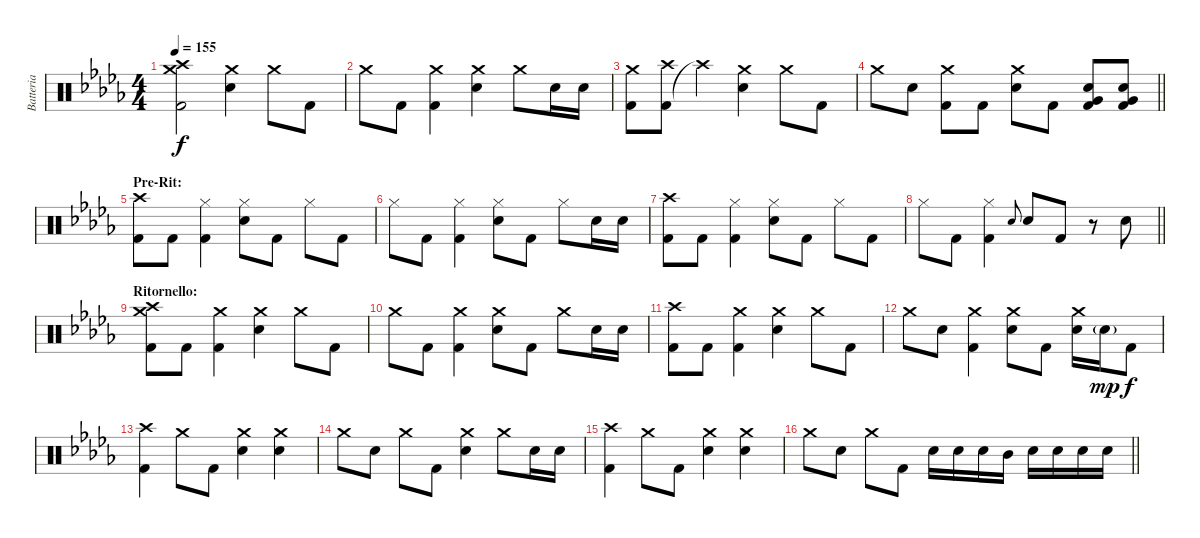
\track ("Batteria" "Batteria") {instrument percussion}
\staff {score}
\articulation defaults
\ts (4 4)
\tempo 155
\clef neutral
\ks bbminor
("Kick (hit) 2" "Crash medium (hit)" "Crash high (hit)").2{dy f} ("Snare (hit) 2" "Crash medium (hit)").4 "Crash medium (hit)".8 "Kick (hit) 2".8 |
"Crash medium (hit)".8 "Kick (hit) 2".8 ("Kick (hit) 2" "Crash medium (hit)").4 ("Snare (hit) 2" "Crash medium (hit)").4 "Crash medium (hit)".8 "Snare (hit) 2".16 "Snare (hit) 2".16 |
("Kick (hit) 2" "Crash medium (hit)").8 ("Kick (hit) 2" "Crash high (hit)").8 "Crash high (hit)"{t}.4 ("Snare (hit) 2" "Crash medium (hit)").4 "Crash medium (hit)".8 "Kick (hit) 2".8 |
\barLineRight lightlight "Crash medium (hit)".8 "Snare (hit) 2".8
("Kick (hit) 2" "Crash medium (hit)").8 "Kick (hit) 2".8 ("Snare (hit) 2" "Crash medium (hit)").8 "Kick (hit) 2".8 ("Kick (hit) 2" "Snare (hit) 2" "Very Low Tom (hit)").8 ("Kick (hit) 2" "Snare (hit) 2" "Very Low Tom (hit)").8 |
\section ("" "Pre-Rit:")
("Kick (hit) 2" "Crash high (hit)").8 "Kick (hit) 2".8 ("Kick (hit) 2" "Hi-Hat (closed)").4 ("Snare (hit) 2" "Hi-Hat (closed)").8 "Kick (hit) 2".8 "Hi-Hat (closed)".8 "Kick (hit) 2".8 |
"Hi-Hat (closed)".8 "Kick (hit) 2".8 ("Kick (hit) 2" "Hi-Hat (closed)").4 ("Snare (hit) 2" "Hi-Hat (closed)").8 "Kick (hit) 2".8 "Hi-Hat (closed)".8 "Snare (hit) 2".16 "Snare (hit) 2".16 |
("Kick (hit) 2" "Crash high (hit)").8 "Kick (hit) 2".8 ("Kick (hit) 2" "Hi-Hat (closed)").4 ("Snare (hit) 2" "Hi-Hat (closed)").8 "Kick (hit) 2".8 "Hi-Hat (closed)".8 "Kick (hit) 2".8 |
\barLineRight lightlight "Hi-Hat (closed)".8 "Kick (hit) 2".8
("Kick (hit) 2" "Hi-Hat (closed)").4 "Snare (hit) 2".8{gr onbeat} "Snare (hit) 2".8 "Kick (hit) 2".8 r.8 "Snare (hit) 2".8 |
\section ("" "Ritornello:")
("Kick (hit) 2" "Crash medium (hit)" "Crash high (hit)").8 "Kick (hit) 2".8 ("Kick (hit) 2" "Crash medium (hit)").4 ("Snare (hit) 2" "Crash medium (hit)").4 "Crash medium (hit)".8 "Kick (hit) 2".8 |
"Crash medium (hit)".8 "Kick (hit) 2".8 ("Kick (hit) 2" "Crash medium (hit)").4 ("Snare (hit) 2" "Crash medium (hit)").8 "Kick (hit) 2".8 "Crash medium (hit)".8 "Snare (hit) 2".16 "Snare (hit) 2".16 |
("Kick (hit) 2" "Crash high (hit)").8 "Kick (hit) 2".8 ("Kick (hit) 2" "Crash medium (hit)").4 ("Snare (hit) 2" "Crash medium (hit)").4 "Crash medium (hit)".8 "Kick (hit) 2".8 |
"Crash medium (hit)".8 "Snare (hit) 2".8 ("Kick (hit) 2" "Crash medium (hit)").4 ("Snare (hit) 2" "Crash medium (hit)").8 "Kick (hit) 2".8 ("Snare (hit) 2" "Crash medium (hit)").16 "Snare (hit) 2"{g}.16{dy mp} "Kick (hit) 2".8{dy f} |
("Kick (hit) 2" "Crash high (hit)").4 "Crash medium (hit)".8 "Kick (hit) 2".8 ("Snare (hit) 2" "Crash medium (hit)").4 ("Snare (hit) 2" "Crash medium (hit)").4 |
"Crash medium (hit)".8 "Snare (hit) 2".8 "Crash medium (hit)".8 "Kick (hit) 2".8 ("Snare (hit) 2" "Crash medium (hit)").4 "Crash medium (hit)".8 "Snare (hit) 2".16 "Snare (hit) 2".16 |
("Kick (hit) 2" "Crash high (hit)").4 "Crash medium (hit)".8 "Kick (hit) 2".8 ("Snare (hit) 2" "Crash medium (hit)").4 ("Snare (hit) 2" "Crash medium (hit)").4 |
\barLineRight lightlight "Crash medium (hit)".8 "Snare (hit) 2".8 "Crash medium (hit)".8 "Kick (hit) 2".8 "Snare (hit) 2".16 "Snare (hit) 2".16 "Snare (hit) 2".16 "Mid Tom (hit)".16 "Snare (hit) 2".16 "Snare (hit) 2".16 "Snare (hit) 2".16 "Snare (hit) 2".16
